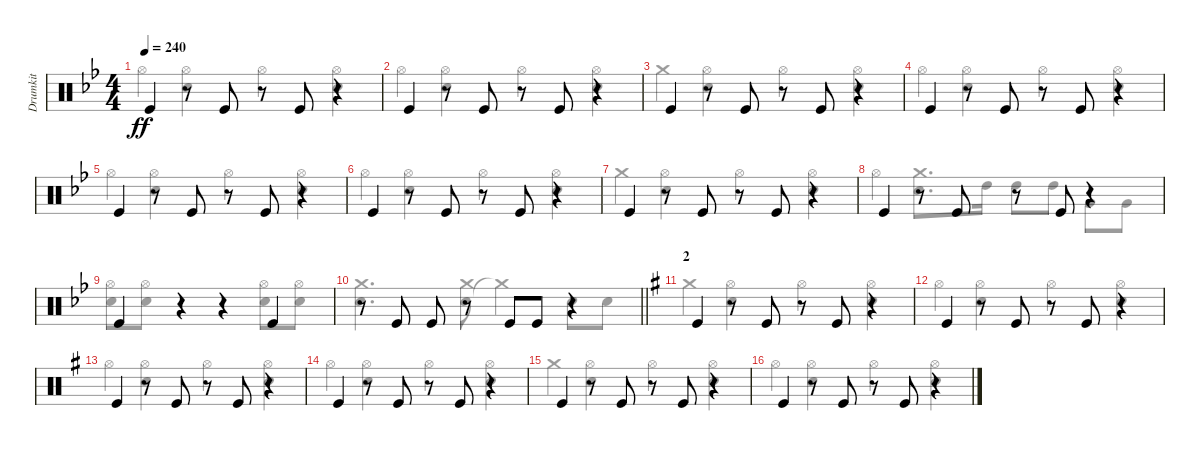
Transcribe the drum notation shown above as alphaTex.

\track ("Drumkit" "Drumkit") {instrument percussion}
\staff {score}
\articulation defaults
\voice
\ts (4 4)
\tempo 240
\clef neutral
\ks bb "Kick (hit)".4{dy ff}
r.8 "Kick (hit)".8 r.8 "Kick (hit)".8 r.4 |
"Kick (hit)".4 r.8 "Kick (hit)".8 r.8 "Kick (hit)".8 r.4 |
"Kick (hit)".4 r.8 "Kick (hit)".8 r.8 "Kick (hit)".8 r.4 |
"Kick (hit)".4 r.8 "Kick (hit)".8 r.8 "Kick (hit)".8 r.4 |
"Kick (hit)".4 r.8 "Kick (hit)".8 r.8 "Kick (hit)".8 r.4 |
"Kick (hit)".4 r.8 "Kick (hit)".8 r.8 "Kick (hit)".8 r.4 |
"Kick (hit)".4 r.8 "Kick (hit)".8 r.8 "Kick (hit)".8 r.4 |
"Kick (hit)".4 r.8 "Kick (hit)".8 r.8 "Kick (hit)".8 r.4 |
"Kick (hit)".4 r.4 r.4 "Kick (hit)".4 |
\barLineRight lightlight
r.8 "Kick (hit)".8 "Kick (hit)".8 r.8 "Kick (hit)".8 "Kick (hit)".8 r.4 |
\section ("" "2")
\ks g "Kick (hit)".4
r.8 "Kick (hit)".8 r.8 "Kick (hit)".8 r.4 |
"Kick (hit)".4 r.8 "Kick (hit)".8 r.8 "Kick (hit)".8 r.4 |
"Kick (hit)".4 r.8 "Kick (hit)".8 r.8 "Kick (hit)".8 r.4 |
"Kick (hit)".4 r.8 "Kick (hit)".8 r.8 "Kick (hit)".8 r.4 |
"Kick (hit)".4 r.8 "Kick (hit)".8 r.8 "Kick (hit)".8 r.4 |
"Kick (hit)".4 r.8 "Kick (hit)".8 r.8 "Kick (hit)".8 r.4
\voice
\clef neutral
\ottava regular
\simile none
\ks bb "Hi-Hat (open)".4{dy ff}
("Hi-Hat (open)" "Snare (hit) 2").4 "Hi-Hat (open)".4 ("Hi-Hat (open)" "Snare (hit) 2").4 |
"Hi-Hat (open)".4 ("Hi-Hat (open)" "Snare (hit) 2").4 "Hi-Hat (open)".4 ("Hi-Hat (open)" "Snare (hit) 2").4 |
"Crash medium (hit)".4 ("Hi-Hat (open)" "Snare (hit) 2").4 "Hi-Hat (open)".4 ("Hi-Hat (open)" "Snare (hit) 2").4 |
"Hi-Hat (open)".4 ("Hi-Hat (open)" "Snare (hit) 2").4 "Hi-Hat (open)".4 ("Hi-Hat (open)" "Snare (hit) 2").4 |
"Hi-Hat (open)".4 ("Hi-Hat (open)" "Snare (hit) 2").4 "Hi-Hat (open)".4 ("Hi-Hat (open)" "Snare (hit) 2").4 |
"Hi-Hat (open)".4 ("Hi-Hat (open)" "Snare (hit) 2").4 "Hi-Hat (open)".4 ("Hi-Hat (open)" "Snare (hit) 2").4 |
"Crash medium (hit)".4 ("Hi-Hat (open)" "Snare (hit) 2").4 "Hi-Hat (open)".4 ("Hi-Hat (open)" "Snare (hit) 2").4 |
"Hi-Hat (open)".4 ("Snare (hit) 2" "Crash medium (hit)").8{d} "High Tom (hit)".16 "High Tom (hit)".8 "High Tom (hit)".8 "Very Low Tom (hit)".8 "Very Low Tom (hit)".8 |
("Snare (hit) 2" "Hi-Hat (open)").8 ("Snare (hit) 2" "Hi-Hat (open)").8 r.4 r.4 ("Hi-Hat (open)" "Snare (hit) 2").8 ("Hi-Hat (open)" "Snare (hit) 2").8 |
\barLineRight lightlight
("Snare (hit) 2" "Crash medium (hit)").4{d} ("Snare (hit) 2" "Crash medium (hit)").8 "Crash medium (hit)"{t}.4 "Snare (hit) 2".8 "Snare (hit) 2".8 |
\ks g "Crash medium (hit)".4
("Hi-Hat (open)" "Snare (hit) 2").4 "Hi-Hat (open)".4 ("Hi-Hat (open)" "Snare (hit) 2").4 |
"Hi-Hat (open)".4 ("Hi-Hat (open)" "Snare (hit) 2").4 "Hi-Hat (open)".4 ("Hi-Hat (open)" "Snare (hit) 2").4 |
"Hi-Hat (open)".4 ("Hi-Hat (open)" "Snare (hit) 2").4 "Hi-Hat (open)".4 ("Hi-Hat (open)" "Snare (hit) 2").4 |
"Hi-Hat (open)".4 ("Hi-Hat (open)" "Snare (hit) 2").4 "Hi-Hat (open)".4 ("Hi-Hat (open)" "Snare (hit) 2").4 |
"Crash medium (hit)".4 ("Hi-Hat (open)" "Snare (hit) 2").4 "Hi-Hat (open)".4 ("Hi-Hat (open)" "Snare (hit) 2").4 |
"Hi-Hat (open)".4 ("Hi-Hat (open)" "Snare (hit) 2").4 "Hi-Hat (open)".4 ("Hi-Hat (open)" "Snare (hit) 2").4
